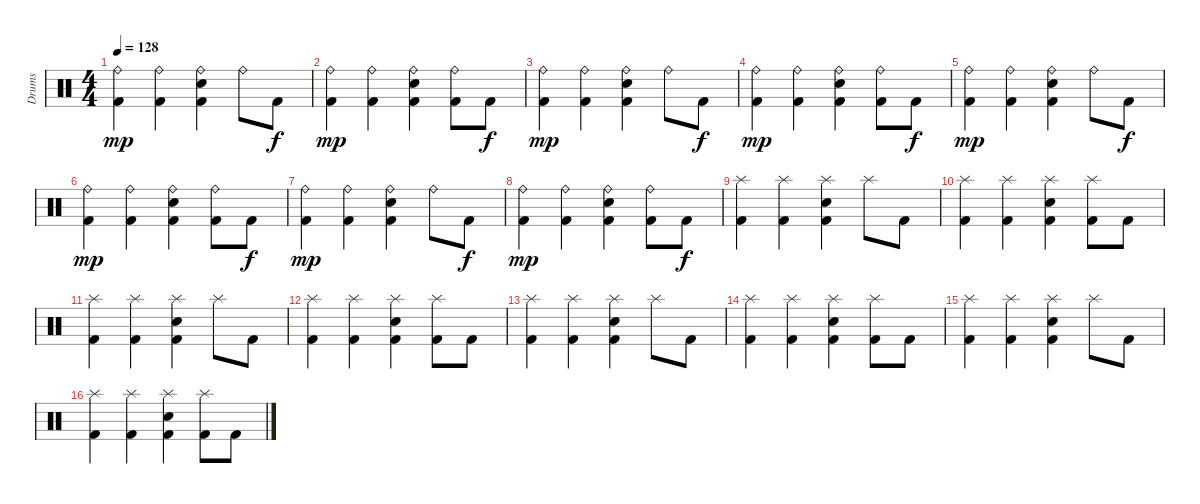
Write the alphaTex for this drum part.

\track ("Drums" "Drums") {instrument percussion}
\staff {score}
\articulation defaults
\ts (4 4)
\tempo 128
\clef neutral
\ks c
("Ride (bell)" "Kick (hit) 2").4{dy mp} ("Ride (bell)" "Kick (hit) 2").4 ("Ride (bell)" "Electric Snare (hit)" "Kick (hit) 2").4 "Ride (bell)".8 "Kick (hit) 2".8{dy f} |
("Ride (bell)" "Kick (hit) 2").4{dy mp} ("Ride (bell)" "Kick (hit) 2").4 ("Ride (bell)" "Electric Snare (hit)" "Kick (hit) 2").4 ("Ride (bell)" "Kick (hit) 2").8 "Kick (hit) 2".8{dy f} |
("Ride (bell)" "Kick (hit) 2").4{dy mp} ("Ride (bell)" "Kick (hit) 2").4 ("Ride (bell)" "Electric Snare (hit)" "Kick (hit) 2").4 "Ride (bell)".8 "Kick (hit) 2".8{dy f} |
("Ride (bell)" "Kick (hit) 2").4{dy mp} ("Ride (bell)" "Kick (hit) 2").4 ("Ride (bell)" "Electric Snare (hit)" "Kick (hit) 2").4 ("Ride (bell)" "Kick (hit) 2").8 "Kick (hit) 2".8{dy f} |
("Ride (bell)" "Kick (hit) 2").4{dy mp} ("Ride (bell)" "Kick (hit) 2").4 ("Ride (bell)" "Electric Snare (hit)" "Kick (hit) 2").4 "Ride (bell)".8 "Kick (hit) 2".8{dy f} |
("Ride (bell)" "Kick (hit) 2").4{dy mp} ("Ride (bell)" "Kick (hit) 2").4 ("Ride (bell)" "Electric Snare (hit)" "Kick (hit) 2").4 ("Ride (bell)" "Kick (hit) 2").8 "Kick (hit) 2".8{dy f} |
("Ride (bell)" "Kick (hit) 2").4{dy mp} ("Ride (bell)" "Kick (hit) 2").4 ("Ride (bell)" "Electric Snare (hit)" "Kick (hit) 2").4 "Ride (bell)".8 "Kick (hit) 2".8{dy f} |
("Ride (bell)" "Kick (hit) 2").4{dy mp} ("Ride (bell)" "Kick (hit) 2").4 ("Ride (bell)" "Electric Snare (hit)" "Kick (hit) 2").4 ("Ride (bell)" "Kick (hit) 2").8 "Kick (hit) 2".8{dy f} |
("Splash (hit)" "Kick (hit) 2").4 ("Splash (hit)" "Kick (hit) 2").4 ("Splash (hit)" "Electric Snare (hit)" "Kick (hit) 2").4 "Splash (hit)".8 "Kick (hit) 2".8 |
("Splash (hit)" "Kick (hit) 2").4 ("Splash (hit)" "Kick (hit) 2").4 ("Splash (hit)" "Electric Snare (hit)" "Kick (hit) 2").4 ("Splash (hit)" "Kick (hit) 2").8 "Kick (hit) 2".8 |
("Splash (hit)" "Kick (hit) 2").4 ("Splash (hit)" "Kick (hit) 2").4 ("Splash (hit)" "Electric Snare (hit)" "Kick (hit) 2").4 "Splash (hit)".8 "Kick (hit) 2".8 |
("Splash (hit)" "Kick (hit) 2").4 ("Splash (hit)" "Kick (hit) 2").4 ("Splash (hit)" "Electric Snare (hit)" "Kick (hit) 2").4 ("Splash (hit)" "Kick (hit) 2").8 "Kick (hit) 2".8 |
("Splash (hit)" "Kick (hit) 2").4 ("Splash (hit)" "Kick (hit) 2").4 ("Splash (hit)" "Electric Snare (hit)" "Kick (hit) 2").4 "Splash (hit)".8 "Kick (hit) 2".8 |
("Splash (hit)" "Kick (hit) 2").4 ("Splash (hit)" "Kick (hit) 2").4 ("Splash (hit)" "Electric Snare (hit)" "Kick (hit) 2").4 ("Splash (hit)" "Kick (hit) 2").8 "Kick (hit) 2".8 |
("Splash (hit)" "Kick (hit) 2").4 ("Splash (hit)" "Kick (hit) 2").4 ("Splash (hit)" "Electric Snare (hit)" "Kick (hit) 2").4 "Splash (hit)".8 "Kick (hit) 2".8 |
("Splash (hit)" "Kick (hit) 2").4 ("Splash (hit)" "Kick (hit) 2").4 ("Splash (hit)" "Electric Snare (hit)" "Kick (hit) 2").4 ("Splash (hit)" "Kick (hit) 2").8 "Kick (hit) 2".8
